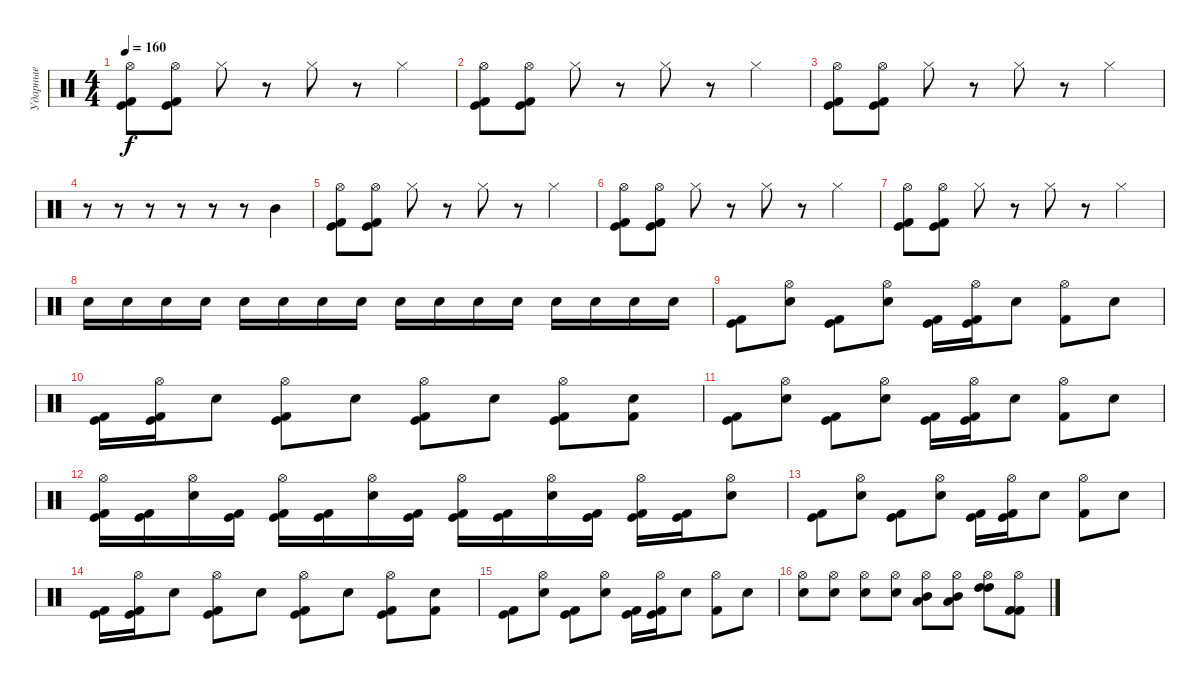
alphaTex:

\track ("Ударные" "Ударные") {instrument percussion}
\staff {score}
\articulation defaults
\ts (4 4)
\tempo 160
\clef neutral
\ks c
("Hi-Hat (open)" "Kick (hit) 2" "Kick (hit)").8{dy f} ("Hi-Hat (open)" "Kick (hit) 2" "Kick (hit)").8 "Hi-Hat (closed)".8 r.8 "Hi-Hat (closed)".8 r.8 "Hi-Hat (closed)".4 |
("Hi-Hat (open)" "Kick (hit) 2" "Kick (hit)").8 ("Hi-Hat (open)" "Kick (hit) 2" "Kick (hit)").8 "Hi-Hat (closed)".8 r.8 "Hi-Hat (closed)".8 r.8 "Hi-Hat (closed)".4 |
("Hi-Hat (open)" "Kick (hit) 2" "Kick (hit)").8 ("Hi-Hat (open)" "Kick (hit) 2" "Kick (hit)").8 "Hi-Hat (closed)".8 r.8 "Hi-Hat (closed)".8 r.8 "Hi-Hat (closed)".4 |
r.8 r.8 r.8 r.8 r.8 r.8 "Mid Tom (hit)".4 |
("Hi-Hat (open)" "Kick (hit) 2" "Kick (hit)").8 ("Hi-Hat (open)" "Kick (hit) 2" "Kick (hit)").8 "Hi-Hat (closed)".8 r.8 "Hi-Hat (closed)".8 r.8 "Hi-Hat (closed)".4 |
("Hi-Hat (open)" "Kick (hit) 2" "Kick (hit)").8 ("Hi-Hat (open)" "Kick (hit) 2" "Kick (hit)").8 "Hi-Hat (closed)".8 r.8 "Hi-Hat (closed)".8 r.8 "Hi-Hat (closed)".4 |
("Hi-Hat (open)" "Kick (hit) 2" "Kick (hit)").8 ("Hi-Hat (open)" "Kick (hit) 2" "Kick (hit)").8 "Hi-Hat (closed)".8 r.8 "Hi-Hat (closed)".8 r.8 "Hi-Hat (closed)".4 |
"Electric Snare (hit)".16 "Electric Snare (hit)".16 "Electric Snare (hit)".16 "Electric Snare (hit)".16 "Electric Snare (hit)".16 "Electric Snare (hit)".16 "Electric Snare (hit)".16 "Electric Snare (hit)".16 "Electric Snare (hit)".16 "Electric Snare (hit)".16 "Electric Snare (hit)".16 "Electric Snare (hit)".16 "Electric Snare (hit)".16 "Electric Snare (hit)".16 "Electric Snare (hit)".16 "Electric Snare (hit)".16 |
("Kick (hit) 2" "Kick (hit)").8 ("Hi-Hat (open)" "Electric Snare (hit)").8 ("Kick (hit) 2" "Kick (hit)").8 ("Hi-Hat (open)" "Electric Snare (hit)").8 ("Kick (hit) 2" "Kick (hit)").16 ("Hi-Hat (open)" "Kick (hit) 2" "Kick (hit)").16 "Electric Snare (hit)".8 ("Hi-Hat (open)" "Kick (hit) 2").8 "Electric Snare (hit)".8 |
("Kick (hit) 2" "Kick (hit)").16 ("Hi-Hat (open)" "Kick (hit) 2" "Kick (hit)").16 "Electric Snare (hit)".8 ("Hi-Hat (open)" "Kick (hit) 2" "Kick (hit)").8 "Electric Snare (hit)".8 ("Hi-Hat (open)" "Kick (hit) 2" "Kick (hit)").8 "Electric Snare (hit)".8 ("Hi-Hat (open)" "Kick (hit) 2" "Kick (hit)").8 ("Kick (hit) 2" "Electric Snare (hit)").8 |
("Kick (hit) 2" "Kick (hit)").8 ("Hi-Hat (open)" "Electric Snare (hit)").8 ("Kick (hit) 2" "Kick (hit)").8 ("Hi-Hat (open)" "Electric Snare (hit)").8 ("Kick (hit) 2" "Kick (hit)").16 ("Hi-Hat (open)" "Kick (hit) 2" "Kick (hit)").16 "Electric Snare (hit)".8 ("Hi-Hat (open)" "Kick (hit) 2").8 "Electric Snare (hit)".8 |
("Hi-Hat (open)" "Kick (hit) 2" "Kick (hit)").16 ("Kick (hit) 2" "Kick (hit)").16 ("Hi-Hat (open)" "Electric Snare (hit)").16 ("Kick (hit) 2" "Kick (hit)").16 ("Hi-Hat (open)" "Kick (hit) 2" "Kick (hit)").16 ("Kick (hit) 2" "Kick (hit)").16 ("Hi-Hat (open)" "Electric Snare (hit)").16 ("Kick (hit) 2" "Kick (hit)").16 ("Hi-Hat (open)" "Kick (hit) 2" "Kick (hit)").16 ("Kick (hit) 2" "Kick (hit)").16 ("Hi-Hat (open)" "Electric Snare (hit)").16 ("Kick (hit) 2" "Kick (hit)").16 ("Hi-Hat (open)" "Kick (hit) 2" "Kick (hit)").16 ("Kick (hit) 2" "Kick (hit)").16 ("Hi-Hat (open)" "Electric Snare (hit)").8 |
("Kick (hit) 2" "Kick (hit)").8 ("Hi-Hat (open)" "Electric Snare (hit)").8 ("Kick (hit) 2" "Kick (hit)").8 ("Hi-Hat (open)" "Electric Snare (hit)").8 ("Kick (hit) 2" "Kick (hit)").16 ("Hi-Hat (open)" "Kick (hit) 2" "Kick (hit)").16 "Electric Snare (hit)".8 ("Hi-Hat (open)" "Kick (hit) 2").8 "Electric Snare (hit)".8 |
("Kick (hit) 2" "Kick (hit)").16 ("Hi-Hat (open)" "Kick (hit) 2" "Kick (hit)").16 "Electric Snare (hit)".8 ("Hi-Hat (open)" "Kick (hit) 2" "Kick (hit)").8 "Electric Snare (hit)".8 ("Hi-Hat (open)" "Kick (hit) 2" "Kick (hit)").8 "Electric Snare (hit)".8 ("Hi-Hat (open)" "Kick (hit) 2" "Kick (hit)").8 ("Kick (hit) 2" "Electric Snare (hit)").8 |
("Kick (hit) 2" "Kick (hit)").8 ("Hi-Hat (open)" "Electric Snare (hit)").8 ("Kick (hit) 2" "Kick (hit)").8 ("Hi-Hat (open)" "Electric Snare (hit)").8 ("Kick (hit) 2" "Kick (hit)").16 ("Hi-Hat (open)" "Kick (hit) 2" "Kick (hit)").16 "Electric Snare (hit)".8 ("Hi-Hat (open)" "Kick (hit) 2").8 "Electric Snare (hit)".8 |
("Hi-Hat (open)" "Electric Snare (hit)").8 ("Hi-Hat (open)" "Electric Snare (hit)").8 ("Hi-Hat (open)" "Electric Snare (hit)").8 ("Hi-Hat (open)" "Electric Snare (hit)").8 ("Hi-Hat (open)" "Low Tom (hit)" "Mid Tom (hit)").8 ("Hi-Hat (open)" "Low Tom (hit)" "Mid Tom (hit)").8 ("Hi-Hat (open)" "High Tom (hit)" "High Tom (hit)").8 ("Hi-Hat (open)" "Kick (hit) 2" "Kick (hit) 2").8
